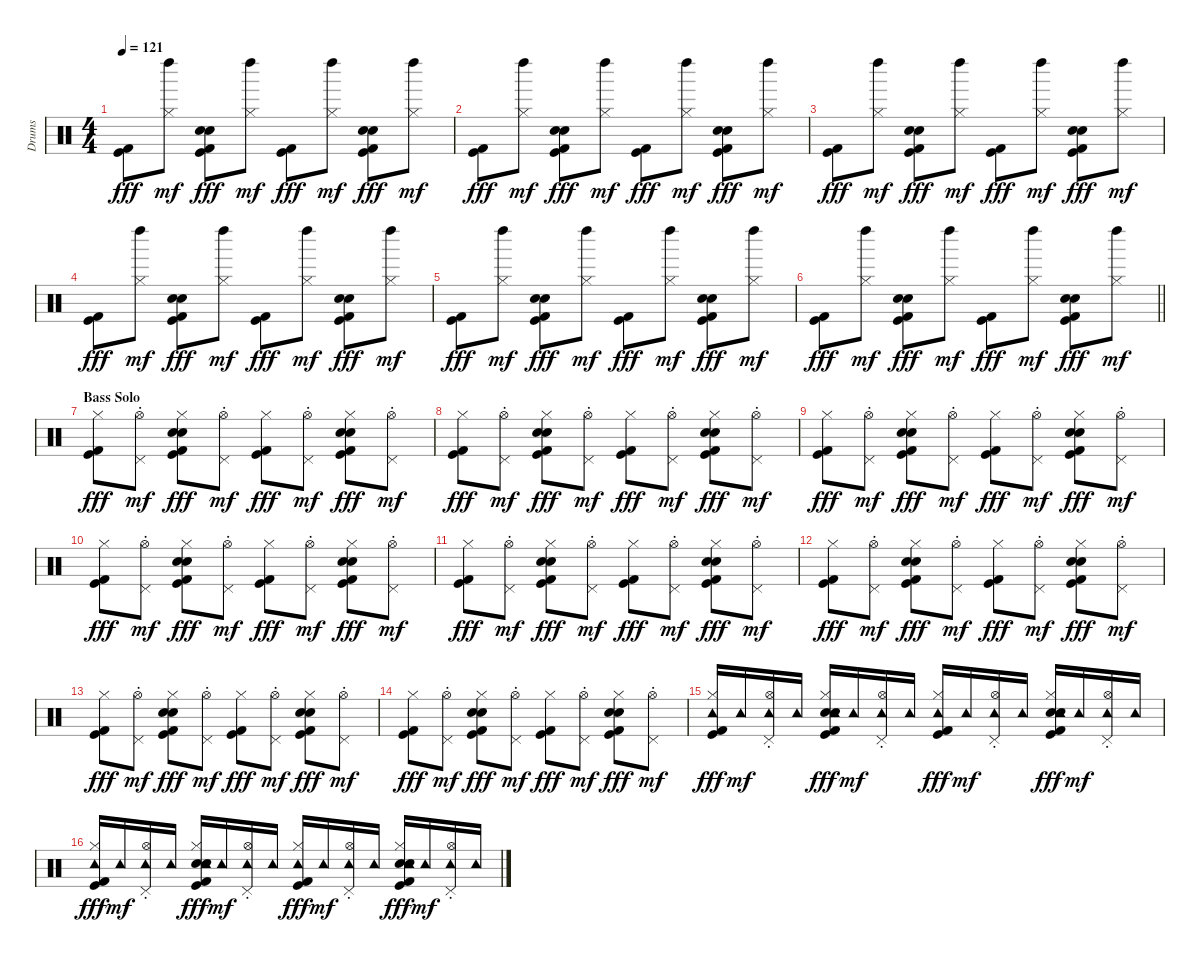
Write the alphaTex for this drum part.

\track ("Drums" "Drums") {instrument percussion}
\staff {score}
\articulation defaults
\ts (4 4)
\tempo 121
\clef neutral
\ks c
("Kick (hit)" "Kick (hit) 2").8{dy fff} ("Left Maraca (hit)" "Hi-Hat (closed)").8{dy mf} ("Hand Clap (hit)" "Snare (hit) 2" "Kick (hit)" "Kick (hit) 2").8{dy fff} ("Left Maraca (hit)" "Hi-Hat (closed)").8{dy mf} ("Kick (hit)" "Kick (hit) 2").8{dy fff} ("Left Maraca (hit)" "Hi-Hat (closed)").8{dy mf} ("Hand Clap (hit)" "Snare (hit) 2" "Kick (hit)" "Kick (hit) 2").8{dy fff} ("Left Maraca (hit)" "Hi-Hat (closed)").8{dy mf} |
("Kick (hit)" "Kick (hit) 2").8{dy fff} ("Left Maraca (hit)" "Hi-Hat (closed)").8{dy mf} ("Hand Clap (hit)" "Snare (hit) 2" "Kick (hit)" "Kick (hit) 2").8{dy fff} ("Left Maraca (hit)" "Hi-Hat (closed)").8{dy mf} ("Kick (hit)" "Kick (hit) 2").8{dy fff} ("Left Maraca (hit)" "Hi-Hat (closed)").8{dy mf} ("Hand Clap (hit)" "Snare (hit) 2" "Kick (hit)" "Kick (hit) 2").8{dy fff} ("Left Maraca (hit)" "Hi-Hat (closed)").8{dy mf} |
("Kick (hit)" "Kick (hit) 2").8{dy fff} ("Left Maraca (hit)" "Hi-Hat (closed)").8{dy mf} ("Hand Clap (hit)" "Snare (hit) 2" "Kick (hit)" "Kick (hit) 2").8{dy fff} ("Left Maraca (hit)" "Hi-Hat (closed)").8{dy mf} ("Kick (hit)" "Kick (hit) 2").8{dy fff} ("Left Maraca (hit)" "Hi-Hat (closed)").8{dy mf} ("Hand Clap (hit)" "Snare (hit) 2" "Kick (hit)" "Kick (hit) 2").8{dy fff} ("Left Maraca (hit)" "Hi-Hat (closed)").8{dy mf} |
("Kick (hit)" "Kick (hit) 2").8{dy fff} ("Left Maraca (hit)" "Hi-Hat (closed)").8{dy mf} ("Hand Clap (hit)" "Snare (hit) 2" "Kick (hit)" "Kick (hit) 2").8{dy fff} ("Left Maraca (hit)" "Hi-Hat (closed)").8{dy mf} ("Kick (hit)" "Kick (hit) 2").8{dy fff} ("Left Maraca (hit)" "Hi-Hat (closed)").8{dy mf} ("Hand Clap (hit)" "Snare (hit) 2" "Kick (hit)" "Kick (hit) 2").8{dy fff} ("Left Maraca (hit)" "Hi-Hat (closed)").8{dy mf} |
("Kick (hit)" "Kick (hit) 2").8{dy fff} ("Left Maraca (hit)" "Hi-Hat (closed)").8{dy mf} ("Hand Clap (hit)" "Snare (hit) 2" "Kick (hit)" "Kick (hit) 2").8{dy fff} ("Left Maraca (hit)" "Hi-Hat (closed)").8{dy mf} ("Kick (hit)" "Kick (hit) 2").8{dy fff} ("Left Maraca (hit)" "Hi-Hat (closed)").8{dy mf} ("Hand Clap (hit)" "Snare (hit) 2" "Kick (hit)" "Kick (hit) 2").8{dy fff} ("Left Maraca (hit)" "Hi-Hat (closed)").8{dy mf} |
\barLineRight lightlight
("Kick (hit)" "Kick (hit) 2").8{dy fff} ("Left Maraca (hit)" "Hi-Hat (closed)").8{dy mf} ("Hand Clap (hit)" "Snare (hit) 2" "Kick (hit)" "Kick (hit) 2").8{dy fff} ("Left Maraca (hit)" "Hi-Hat (closed)").8{dy mf} ("Kick (hit)" "Kick (hit) 2").8{dy fff} ("Left Maraca (hit)" "Hi-Hat (closed)").8{dy mf} ("Hand Clap (hit)" "Snare (hit) 2" "Kick (hit)" "Kick (hit) 2").8{dy fff} ("Left Maraca (hit)" "Hi-Hat (closed)").8{dy mf} |
\section ("" "Bass Solo")
("Hi-Hat (closed)" "Kick (hit)" "Kick (hit) 2").8{dy fff} ("Pedal Hi-Hat (hit)"{st} "Hi-Hat (open)"{st}).8{dy mf} ("Hi-Hat (closed)" "Hand Clap (hit)" "Snare (hit) 2" "Kick (hit)" "Kick (hit) 2").8{dy fff} ("Pedal Hi-Hat (hit)"{st} "Hi-Hat (open)"{st}).8{dy mf} ("Hi-Hat (closed)" "Kick (hit)" "Kick (hit) 2").8{dy fff} ("Pedal Hi-Hat (hit)"{st} "Hi-Hat (open)"{st}).8{dy mf} ("Hi-Hat (closed)" "Hand Clap (hit)" "Snare (hit) 2" "Kick (hit)" "Kick (hit) 2").8{dy fff} ("Pedal Hi-Hat (hit)"{st} "Hi-Hat (open)"{st}).8{dy mf} |
("Hi-Hat (closed)" "Kick (hit)" "Kick (hit) 2").8{dy fff} ("Pedal Hi-Hat (hit)"{st} "Hi-Hat (open)"{st}).8{dy mf} ("Hi-Hat (closed)" "Hand Clap (hit)" "Snare (hit) 2" "Kick (hit)" "Kick (hit) 2").8{dy fff} ("Pedal Hi-Hat (hit)"{st} "Hi-Hat (open)"{st}).8{dy mf} ("Hi-Hat (closed)" "Kick (hit)" "Kick (hit) 2").8{dy fff} ("Pedal Hi-Hat (hit)"{st} "Hi-Hat (open)"{st}).8{dy mf} ("Hi-Hat (closed)" "Hand Clap (hit)" "Snare (hit) 2" "Kick (hit)" "Kick (hit) 2").8{dy fff} ("Pedal Hi-Hat (hit)"{st} "Hi-Hat (open)"{st}).8{dy mf} |
("Hi-Hat (closed)" "Kick (hit)" "Kick (hit) 2").8{dy fff} ("Pedal Hi-Hat (hit)"{st} "Hi-Hat (open)"{st}).8{dy mf} ("Hi-Hat (closed)" "Hand Clap (hit)" "Snare (hit) 2" "Kick (hit)" "Kick (hit) 2").8{dy fff} ("Pedal Hi-Hat (hit)"{st} "Hi-Hat (open)"{st}).8{dy mf} ("Hi-Hat (closed)" "Kick (hit)" "Kick (hit) 2").8{dy fff} ("Pedal Hi-Hat (hit)"{st} "Hi-Hat (open)"{st}).8{dy mf} ("Hi-Hat (closed)" "Hand Clap (hit)" "Snare (hit) 2" "Kick (hit)" "Kick (hit) 2").8{dy fff} ("Pedal Hi-Hat (hit)"{st} "Hi-Hat (open)"{st}).8{dy mf} |
("Hi-Hat (closed)" "Kick (hit)" "Kick (hit) 2").8{dy fff} ("Pedal Hi-Hat (hit)"{st} "Hi-Hat (open)"{st}).8{dy mf} ("Hi-Hat (closed)" "Hand Clap (hit)" "Snare (hit) 2" "Kick (hit)" "Kick (hit) 2").8{dy fff} ("Pedal Hi-Hat (hit)"{st} "Hi-Hat (open)"{st}).8{dy mf} ("Hi-Hat (closed)" "Kick (hit)" "Kick (hit) 2").8{dy fff} ("Pedal Hi-Hat (hit)"{st} "Hi-Hat (open)"{st}).8{dy mf} ("Hi-Hat (closed)" "Hand Clap (hit)" "Snare (hit) 2" "Kick (hit)" "Kick (hit) 2").8{dy fff} ("Pedal Hi-Hat (hit)"{st} "Hi-Hat (open)"{st}).8{dy mf} |
("Hi-Hat (closed)" "Kick (hit)" "Kick (hit) 2").8{dy fff} ("Pedal Hi-Hat (hit)"{st} "Hi-Hat (open)"{st}).8{dy mf} ("Hi-Hat (closed)" "Hand Clap (hit)" "Snare (hit) 2" "Kick (hit)" "Kick (hit) 2").8{dy fff} ("Pedal Hi-Hat (hit)"{st} "Hi-Hat (open)"{st}).8{dy mf} ("Hi-Hat (closed)" "Kick (hit)" "Kick (hit) 2").8{dy fff} ("Pedal Hi-Hat (hit)"{st} "Hi-Hat (open)"{st}).8{dy mf} ("Hi-Hat (closed)" "Hand Clap (hit)" "Snare (hit) 2" "Kick (hit)" "Kick (hit) 2").8{dy fff} ("Pedal Hi-Hat (hit)"{st} "Hi-Hat (open)"{st}).8{dy mf} |
("Hi-Hat (closed)" "Kick (hit)" "Kick (hit) 2").8{dy fff} ("Pedal Hi-Hat (hit)"{st} "Hi-Hat (open)"{st}).8{dy mf} ("Hi-Hat (closed)" "Hand Clap (hit)" "Snare (hit) 2" "Kick (hit)" "Kick (hit) 2").8{dy fff} ("Pedal Hi-Hat (hit)"{st} "Hi-Hat (open)"{st}).8{dy mf} ("Hi-Hat (closed)" "Kick (hit)" "Kick (hit) 2").8{dy fff} ("Pedal Hi-Hat (hit)"{st} "Hi-Hat (open)"{st}).8{dy mf} ("Hi-Hat (closed)" "Hand Clap (hit)" "Snare (hit) 2" "Kick (hit)" "Kick (hit) 2").8{dy fff} ("Pedal Hi-Hat (hit)"{st} "Hi-Hat (open)"{st}).8{dy mf} |
("Hi-Hat (closed)" "Kick (hit)" "Kick (hit) 2").8{dy fff} ("Pedal Hi-Hat (hit)"{st} "Hi-Hat (open)"{st}).8{dy mf} ("Hi-Hat (closed)" "Hand Clap (hit)" "Snare (hit) 2" "Kick (hit)" "Kick (hit) 2").8{dy fff} ("Pedal Hi-Hat (hit)"{st} "Hi-Hat (open)"{st}).8{dy mf} ("Hi-Hat (closed)" "Kick (hit)" "Kick (hit) 2").8{dy fff} ("Pedal Hi-Hat (hit)"{st} "Hi-Hat (open)"{st}).8{dy mf} ("Hi-Hat (closed)" "Hand Clap (hit)" "Snare (hit) 2" "Kick (hit)" "Kick (hit) 2").8{dy fff} ("Pedal Hi-Hat (hit)"{st} "Hi-Hat (open)"{st}).8{dy mf} |
("Hi-Hat (closed)" "Kick (hit)" "Kick (hit) 2").8{dy fff} ("Pedal Hi-Hat (hit)"{st} "Hi-Hat (open)"{st}).8{dy mf} ("Hi-Hat (closed)" "Hand Clap (hit)" "Snare (hit) 2" "Kick (hit)" "Kick (hit) 2").8{dy fff} ("Pedal Hi-Hat (hit)"{st} "Hi-Hat (open)"{st}).8{dy mf} ("Hi-Hat (closed)" "Kick (hit)" "Kick (hit) 2").8{dy fff} ("Pedal Hi-Hat (hit)"{st} "Hi-Hat (open)"{st}).8{dy mf} ("Hi-Hat (closed)" "Hand Clap (hit)" "Snare (hit) 2" "Kick (hit)" "Kick (hit) 2").8{dy fff} ("Pedal Hi-Hat (hit)"{st} "Hi-Hat (open)"{st}).8{dy mf} |
("Hi-Hat (closed)" "Tambourine (hit)" "Kick (hit)" "Kick (hit) 2").16{dy fff} "Tambourine (hit)".16{dy mf} ("Pedal Hi-Hat (hit)"{st} "Hi-Hat (open)"{st} "Tambourine (hit)").16 "Tambourine (hit)".16 ("Hand Clap (hit)" "Hi-Hat (closed)" "Tambourine (hit)" "Snare (hit) 2" "Kick (hit)" "Kick (hit) 2").16{dy fff} "Tambourine (hit)".16{dy mf} ("Pedal Hi-Hat (hit)"{st} "Hi-Hat (open)"{st} "Tambourine (hit)").16 "Tambourine (hit)".16 ("Hi-Hat (closed)" "Tambourine (hit)" "Kick (hit)" "Kick (hit) 2").16{dy fff} "Tambourine (hit)".16{dy mf} ("Pedal Hi-Hat (hit)"{st} "Hi-Hat (open)"{st} "Tambourine (hit)").16 "Tambourine (hit)".16 ("Hand Clap (hit)" "Hi-Hat (closed)" "Tambourine (hit)" "Snare (hit) 2" "Kick (hit)" "Kick (hit) 2").16{dy fff} "Tambourine (hit)".16{dy mf} ("Pedal Hi-Hat (hit)"{st} "Hi-Hat (open)"{st} "Tambourine (hit)").16 "Tambourine (hit)".16 |
("Hi-Hat (closed)" "Tambourine (hit)" "Kick (hit)" "Kick (hit) 2").16{dy fff} "Tambourine (hit)".16{dy mf} ("Pedal Hi-Hat (hit)"{st} "Hi-Hat (open)"{st} "Tambourine (hit)").16 "Tambourine (hit)".16 ("Hand Clap (hit)" "Hi-Hat (closed)" "Tambourine (hit)" "Snare (hit) 2" "Kick (hit)" "Kick (hit) 2").16{dy fff} "Tambourine (hit)".16{dy mf} ("Pedal Hi-Hat (hit)"{st} "Hi-Hat (open)"{st} "Tambourine (hit)").16 "Tambourine (hit)".16 ("Hi-Hat (closed)" "Tambourine (hit)" "Kick (hit)" "Kick (hit) 2").16{dy fff} "Tambourine (hit)".16{dy mf} ("Pedal Hi-Hat (hit)"{st} "Hi-Hat (open)"{st} "Tambourine (hit)").16 "Tambourine (hit)".16 ("Hand Clap (hit)" "Hi-Hat (closed)" "Tambourine (hit)" "Snare (hit) 2" "Kick (hit)" "Kick (hit) 2").16{dy fff} "Tambourine (hit)".16{dy mf} ("Pedal Hi-Hat (hit)"{st} "Hi-Hat (open)"{st} "Tambourine (hit)").16 "Tambourine (hit)".16
